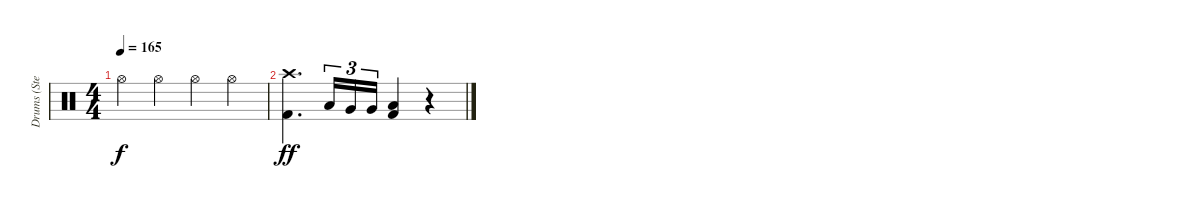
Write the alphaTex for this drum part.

\track ("Drums (Steven)" "Drums (Ste") {instrument percussion}
\staff {score}
\articulation defaults
\ts (4 4)
\tempo 165
\clef neutral
\ks c "Hi-Hat (open)".4{dy f} "Hi-Hat (open)".4 "Hi-Hat (open)".4 "Hi-Hat (open)".4
|
("Crash high (hit)" "Kick (hit) 2").4{d dy ff} "Low Tom (hit)".16{tu (3 2)} "Very Low Tom (hit)".16{tu (3 2)} "Very Low Tom (hit)".16{tu (3 2)} ("Low Floor Tom (hit)" "Kick (hit) 2").4 r.4
